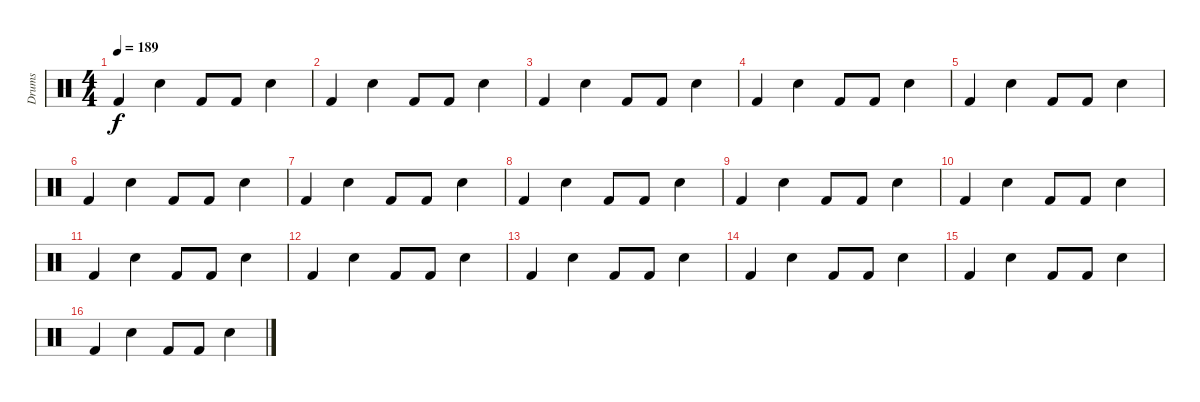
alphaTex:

\track ("Drums" "Drums") {instrument percussion}
\staff {score}
\articulation defaults
\ts (4 4)
\tempo 189
\clef neutral
\ks c "Kick (hit) 2".4{dy f} "Electric Snare (hit)".4 "Kick (hit) 2".8 "Kick (hit) 2".8 "Electric Snare (hit)".4
|
"Kick (hit) 2".4 "Electric Snare (hit)".4 "Kick (hit) 2".8 "Kick (hit) 2".8 "Electric Snare (hit)".4 |
"Kick (hit) 2".4 "Electric Snare (hit)".4 "Kick (hit) 2".8 "Kick (hit) 2".8 "Electric Snare (hit)".4 |
"Kick (hit) 2".4 "Electric Snare (hit)".4 "Kick (hit) 2".8 "Kick (hit) 2".8 "Electric Snare (hit)".4 |
"Kick (hit) 2".4 "Electric Snare (hit)".4 "Kick (hit) 2".8 "Kick (hit) 2".8 "Electric Snare (hit)".4 |
"Kick (hit) 2".4 "Electric Snare (hit)".4 "Kick (hit) 2".8 "Kick (hit) 2".8 "Electric Snare (hit)".4 |
"Kick (hit) 2".4 "Electric Snare (hit)".4 "Kick (hit) 2".8 "Kick (hit) 2".8 "Electric Snare (hit)".4 |
"Kick (hit) 2".4 "Electric Snare (hit)".4 "Kick (hit) 2".8 "Kick (hit) 2".8 "Electric Snare (hit)".4 |
"Kick (hit) 2".4 "Electric Snare (hit)".4 "Kick (hit) 2".8 "Kick (hit) 2".8 "Electric Snare (hit)".4 |
"Kick (hit) 2".4 "Electric Snare (hit)".4 "Kick (hit) 2".8 "Kick (hit) 2".8 "Electric Snare (hit)".4 |
"Kick (hit) 2".4 "Electric Snare (hit)".4 "Kick (hit) 2".8 "Kick (hit) 2".8 "Electric Snare (hit)".4 |
"Kick (hit) 2".4 "Electric Snare (hit)".4 "Kick (hit) 2".8 "Kick (hit) 2".8 "Electric Snare (hit)".4 |
"Kick (hit) 2".4 "Electric Snare (hit)".4 "Kick (hit) 2".8 "Kick (hit) 2".8 "Electric Snare (hit)".4 |
"Kick (hit) 2".4 "Electric Snare (hit)".4 "Kick (hit) 2".8 "Kick (hit) 2".8 "Electric Snare (hit)".4 |
"Kick (hit) 2".4 "Electric Snare (hit)".4 "Kick (hit) 2".8 "Kick (hit) 2".8 "Electric Snare (hit)".4 |
"Kick (hit) 2".4 "Electric Snare (hit)".4 "Kick (hit) 2".8 "Kick (hit) 2".8 "Electric Snare (hit)".4
